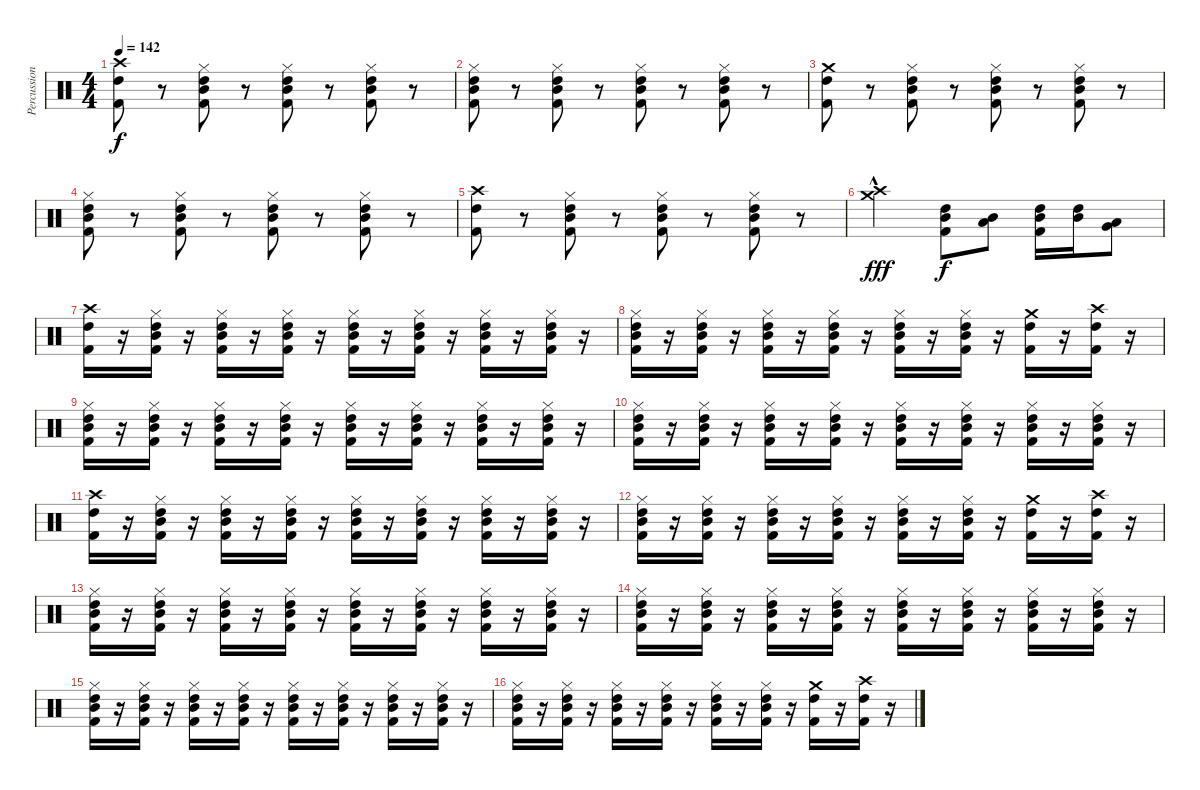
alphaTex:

\track ("Percussion" "Percussion") {instrument percussion}
\staff {score}
\articulation defaults
\ts (4 4)
\tempo 142
\clef neutral
\ks c
("Crash high (hit)" "High Tom (hit)" "Kick (hit) 2").8{dy f} r.8 ("Hi-Hat (closed)" "High Tom (hit)" "Mid Tom (hit)" "Kick (hit) 2").8 r.8 ("Hi-Hat (closed)" "High Tom (hit)" "Mid Tom (hit)" "Kick (hit) 2").8 r.8 ("Hi-Hat (closed)" "High Tom (hit)" "Mid Tom (hit)" "Kick (hit) 2").8 r.8 |
("Hi-Hat (closed)" "High Tom (hit)" "Mid Tom (hit)" "Kick (hit) 2").8 r.8 ("Hi-Hat (closed)" "High Tom (hit)" "Mid Tom (hit)" "Kick (hit) 2").8 r.8 ("Hi-Hat (closed)" "High Tom (hit)" "Mid Tom (hit)" "Kick (hit) 2").8 r.8 ("Hi-Hat (closed)" "High Tom (hit)" "Mid Tom (hit)" "Kick (hit) 2").8 r.8 |
("Crash medium (hit)" "High Tom (hit)" "Kick (hit) 2").8 r.8 ("Hi-Hat (closed)" "High Tom (hit)" "Mid Tom (hit)" "Kick (hit) 2").8 r.8 ("Hi-Hat (closed)" "High Tom (hit)" "Mid Tom (hit)" "Kick (hit) 2").8 r.8 ("Hi-Hat (closed)" "High Tom (hit)" "Mid Tom (hit)" "Kick (hit) 2").8 r.8 |
("Hi-Hat (closed)" "High Tom (hit)" "Mid Tom (hit)" "Kick (hit) 2").8 r.8 ("Hi-Hat (closed)" "High Tom (hit)" "Mid Tom (hit)" "Kick (hit) 2").8 r.8 ("Hi-Hat (closed)" "High Tom (hit)" "Mid Tom (hit)" "Kick (hit) 2").8 r.8 ("Hi-Hat (closed)" "High Tom (hit)" "Mid Tom (hit)" "Kick (hit) 2").8 r.8 |
("Crash high (hit)" "High Tom (hit)" "Kick (hit) 2").8 r.8 ("Hi-Hat (closed)" "High Tom (hit)" "Mid Tom (hit)" "Kick (hit) 2").8 r.8 ("Hi-Hat (closed)" "High Tom (hit)" "Mid Tom (hit)" "Kick (hit) 2").8 r.8 ("Hi-Hat (closed)" "High Tom (hit)" "Mid Tom (hit)" "Kick (hit) 2").8 r.8 |
("Crash high (hit)"{hac} "Crash medium (hit)"{hac}).2{dy fff} ("Mid Tom (hit)" "High Tom (hit)" "Kick (hit) 2").8{dy f} ("Low Tom (hit)" "Mid Tom (hit)").8 ("Mid Tom (hit)" "High Tom (hit)" "Kick (hit) 2").16 ("Mid Tom (hit)" "High Tom (hit)").16 ("Low Tom (hit)" "Very Low Tom (hit)").8 |
("Crash high (hit)" "High Tom (hit)" "Kick (hit) 2").16 r.16 ("Hi-Hat (closed)" "High Tom (hit)" "Mid Tom (hit)" "Kick (hit) 2").16 r.16 ("Hi-Hat (closed)" "High Tom (hit)" "Mid Tom (hit)" "Kick (hit) 2").16 r.16 ("Hi-Hat (closed)" "High Tom (hit)" "Mid Tom (hit)" "Kick (hit) 2").16 r.16 ("Hi-Hat (closed)" "High Tom (hit)" "Mid Tom (hit)" "Kick (hit) 2").16 r.16 ("Hi-Hat (closed)" "High Tom (hit)" "Mid Tom (hit)" "Kick (hit) 2").16 r.16 ("Hi-Hat (closed)" "High Tom (hit)" "Mid Tom (hit)" "Kick (hit) 2").16 r.16 ("Hi-Hat (closed)" "High Tom (hit)" "Mid Tom (hit)" "Kick (hit) 2").16 r.16 |
("Hi-Hat (closed)" "High Tom (hit)" "Mid Tom (hit)" "Kick (hit) 2").16 r.16 ("Hi-Hat (closed)" "High Tom (hit)" "Mid Tom (hit)" "Kick (hit) 2").16 r.16 ("Hi-Hat (closed)" "High Tom (hit)" "Mid Tom (hit)" "Kick (hit) 2").16 r.16 ("Hi-Hat (closed)" "High Tom (hit)" "Mid Tom (hit)" "Kick (hit) 2").16 r.16 ("Hi-Hat (closed)" "High Tom (hit)" "Mid Tom (hit)" "Kick (hit) 2").16 r.16 ("Hi-Hat (closed)" "High Tom (hit)" "Mid Tom (hit)" "Kick (hit) 2").16 r.16 ("Crash medium (hit)" "High Tom (hit)" "Kick (hit) 2").16 r.16 ("Crash high (hit)" "High Tom (hit)" "Kick (hit) 2").16 r.16 |
("Hi-Hat (closed)" "High Tom (hit)" "Mid Tom (hit)" "Kick (hit) 2").16 r.16 ("Hi-Hat (closed)" "High Tom (hit)" "Mid Tom (hit)" "Kick (hit) 2").16 r.16 ("Hi-Hat (closed)" "High Tom (hit)" "Mid Tom (hit)" "Kick (hit) 2").16 r.16 ("Hi-Hat (closed)" "High Tom (hit)" "Mid Tom (hit)" "Kick (hit) 2").16 r.16 ("Hi-Hat (closed)" "High Tom (hit)" "Mid Tom (hit)" "Kick (hit) 2").16 r.16 ("Hi-Hat (closed)" "High Tom (hit)" "Mid Tom (hit)" "Kick (hit) 2").16 r.16 ("Hi-Hat (closed)" "High Tom (hit)" "Mid Tom (hit)" "Kick (hit) 2").16 r.16 ("Hi-Hat (closed)" "High Tom (hit)" "Mid Tom (hit)" "Kick (hit) 2").16 r.16 |
("Hi-Hat (closed)" "High Tom (hit)" "Mid Tom (hit)" "Kick (hit) 2").16 r.16 ("Hi-Hat (closed)" "High Tom (hit)" "Mid Tom (hit)" "Kick (hit) 2").16 r.16 ("Hi-Hat (closed)" "High Tom (hit)" "Mid Tom (hit)" "Kick (hit) 2").16 r.16 ("Hi-Hat (closed)" "High Tom (hit)" "Mid Tom (hit)" "Kick (hit) 2").16 r.16 ("Hi-Hat (closed)" "High Tom (hit)" "Mid Tom (hit)" "Kick (hit) 2").16 r.16 ("Hi-Hat (closed)" "High Tom (hit)" "Mid Tom (hit)" "Kick (hit) 2").16 r.16 ("Hi-Hat (closed)" "High Tom (hit)" "Mid Tom (hit)" "Kick (hit) 2").16 r.16 ("Hi-Hat (closed)" "High Tom (hit)" "Mid Tom (hit)" "Kick (hit) 2").16 r.16 |
("Crash high (hit)" "High Tom (hit)" "Kick (hit) 2").16 r.16 ("Hi-Hat (closed)" "High Tom (hit)" "Mid Tom (hit)" "Kick (hit) 2").16 r.16 ("Hi-Hat (closed)" "High Tom (hit)" "Mid Tom (hit)" "Kick (hit) 2").16 r.16 ("Hi-Hat (closed)" "High Tom (hit)" "Mid Tom (hit)" "Kick (hit) 2").16 r.16 ("Hi-Hat (closed)" "High Tom (hit)" "Mid Tom (hit)" "Kick (hit) 2").16 r.16 ("Hi-Hat (closed)" "High Tom (hit)" "Mid Tom (hit)" "Kick (hit) 2").16 r.16 ("Hi-Hat (closed)" "High Tom (hit)" "Mid Tom (hit)" "Kick (hit) 2").16 r.16 ("Hi-Hat (closed)" "High Tom (hit)" "Mid Tom (hit)" "Kick (hit) 2").16 r.16 |
("Hi-Hat (closed)" "High Tom (hit)" "Mid Tom (hit)" "Kick (hit) 2").16 r.16 ("Hi-Hat (closed)" "High Tom (hit)" "Mid Tom (hit)" "Kick (hit) 2").16 r.16 ("Hi-Hat (closed)" "High Tom (hit)" "Mid Tom (hit)" "Kick (hit) 2").16 r.16 ("Hi-Hat (closed)" "High Tom (hit)" "Mid Tom (hit)" "Kick (hit) 2").16 r.16 ("Hi-Hat (closed)" "High Tom (hit)" "Mid Tom (hit)" "Kick (hit) 2").16 r.16 ("Hi-Hat (closed)" "High Tom (hit)" "Mid Tom (hit)" "Kick (hit) 2").16 r.16 ("Crash medium (hit)" "High Tom (hit)" "Kick (hit) 2").16 r.16 ("Crash high (hit)" "High Tom (hit)" "Kick (hit) 2").16 r.16 |
("Hi-Hat (closed)" "High Tom (hit)" "Mid Tom (hit)" "Kick (hit) 2").16 r.16 ("Hi-Hat (closed)" "High Tom (hit)" "Mid Tom (hit)" "Kick (hit) 2").16 r.16 ("Hi-Hat (closed)" "High Tom (hit)" "Mid Tom (hit)" "Kick (hit) 2").16 r.16 ("Hi-Hat (closed)" "High Tom (hit)" "Mid Tom (hit)" "Kick (hit) 2").16 r.16 ("Hi-Hat (closed)" "High Tom (hit)" "Mid Tom (hit)" "Kick (hit) 2").16 r.16 ("Hi-Hat (closed)" "High Tom (hit)" "Mid Tom (hit)" "Kick (hit) 2").16 r.16 ("Hi-Hat (closed)" "High Tom (hit)" "Mid Tom (hit)" "Kick (hit) 2").16 r.16 ("Hi-Hat (closed)" "High Tom (hit)" "Mid Tom (hit)" "Kick (hit) 2").16 r.16 |
("Hi-Hat (closed)" "High Tom (hit)" "Mid Tom (hit)" "Kick (hit) 2").16 r.16 ("Hi-Hat (closed)" "High Tom (hit)" "Mid Tom (hit)" "Kick (hit) 2").16 r.16 ("Hi-Hat (closed)" "High Tom (hit)" "Mid Tom (hit)" "Kick (hit) 2").16 r.16 ("Hi-Hat (closed)" "High Tom (hit)" "Mid Tom (hit)" "Kick (hit) 2").16 r.16 ("Hi-Hat (closed)" "High Tom (hit)" "Mid Tom (hit)" "Kick (hit) 2").16 r.16 ("Hi-Hat (closed)" "High Tom (hit)" "Mid Tom (hit)" "Kick (hit) 2").16 r.16 ("Hi-Hat (closed)" "High Tom (hit)" "Mid Tom (hit)" "Kick (hit) 2").16 r.16 ("Hi-Hat (closed)" "High Tom (hit)" "Mid Tom (hit)" "Kick (hit) 2").16 r.16 |
("Hi-Hat (closed)" "High Tom (hit)" "Mid Tom (hit)" "Kick (hit) 2").16 r.16 ("Hi-Hat (closed)" "High Tom (hit)" "Mid Tom (hit)" "Kick (hit) 2").16 r.16 ("Hi-Hat (closed)" "High Tom (hit)" "Mid Tom (hit)" "Kick (hit) 2").16 r.16 ("Hi-Hat (closed)" "High Tom (hit)" "Mid Tom (hit)" "Kick (hit) 2").16 r.16 ("Hi-Hat (closed)" "High Tom (hit)" "Mid Tom (hit)" "Kick (hit) 2").16 r.16 ("Hi-Hat (closed)" "High Tom (hit)" "Mid Tom (hit)" "Kick (hit) 2").16 r.16 ("Hi-Hat (closed)" "High Tom (hit)" "Mid Tom (hit)" "Kick (hit) 2").16 r.16 ("Hi-Hat (closed)" "High Tom (hit)" "Mid Tom (hit)" "Kick (hit) 2").16 r.16 |
("Hi-Hat (closed)" "High Tom (hit)" "Mid Tom (hit)" "Kick (hit) 2").16 r.16 ("Hi-Hat (closed)" "High Tom (hit)" "Mid Tom (hit)" "Kick (hit) 2").16 r.16 ("Hi-Hat (closed)" "High Tom (hit)" "Mid Tom (hit)" "Kick (hit) 2").16 r.16 ("Hi-Hat (closed)" "High Tom (hit)" "Mid Tom (hit)" "Kick (hit) 2").16 r.16 ("Hi-Hat (closed)" "High Tom (hit)" "Mid Tom (hit)" "Kick (hit) 2").16 r.16 ("Hi-Hat (closed)" "High Tom (hit)" "Mid Tom (hit)" "Kick (hit) 2").16 r.16 ("Crash medium (hit)" "High Tom (hit)" "Kick (hit) 2").16 r.16 ("Crash high (hit)" "High Tom (hit)" "Kick (hit) 2").16 r.16
